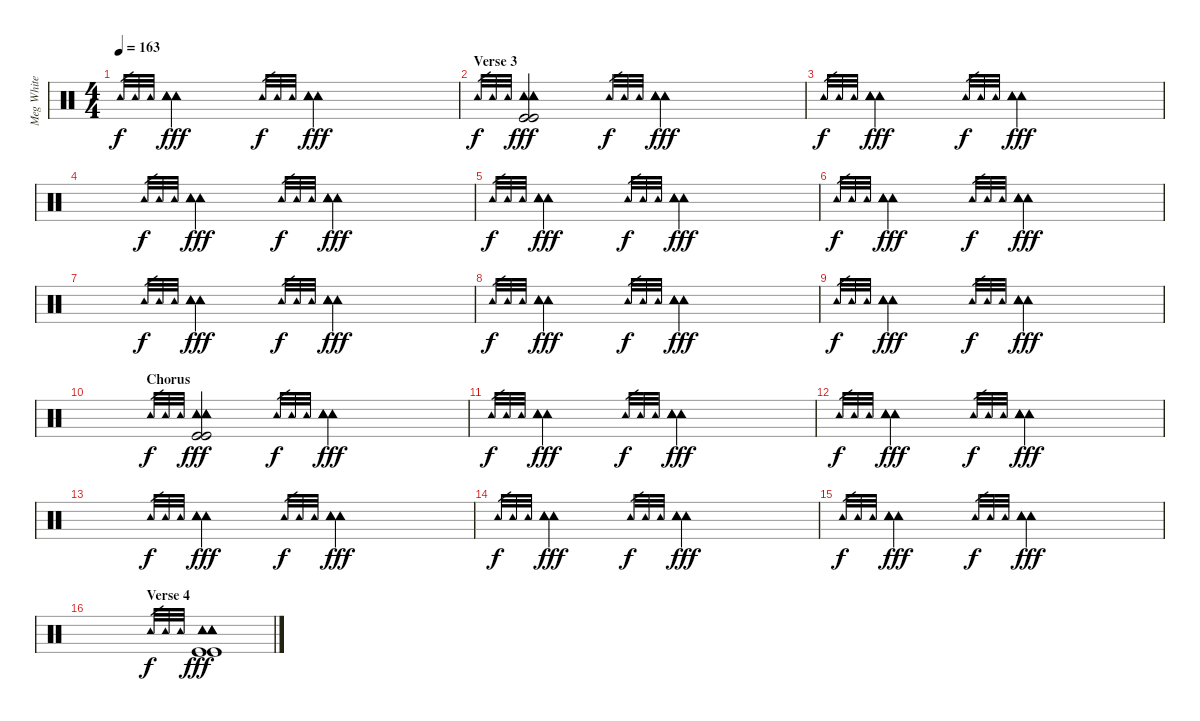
\track ("Meg White" "Meg White") {instrument percussion}
\staff {score}
\articulation defaults
\ts (4 4)
\tempo 163
\clef neutral
\ks c "Tambourine (hit)".32{gr dy f} "Tambourine (hit)".32{gr} "Tambourine (hit)".32{gr}
("Tambourine (hit)" "Tambourine (hit)" "Tambourine (hit)").2{dy fff} "Tambourine (hit)".32{gr dy f} "Tambourine (hit)".32{gr} "Tambourine (hit)".32{gr} ("Tambourine (hit)" "Tambourine (hit)" "Tambourine (hit)").2{dy fff} |
\section ("" "Verse 3")
"Tambourine (hit)".32{gr dy f} "Tambourine (hit)".32{gr} "Tambourine (hit)".32{gr} ("Tambourine (hit)" "Tambourine (hit)" "Tambourine (hit)" "Kick (hit)" "Kick (hit)").2{dy fff} "Tambourine (hit)".32{gr dy f} "Tambourine (hit)".32{gr} "Tambourine (hit)".32{gr} ("Tambourine (hit)" "Tambourine (hit)" "Tambourine (hit)").2{dy fff} |
"Tambourine (hit)".32{gr dy f} "Tambourine (hit)".32{gr} "Tambourine (hit)".32{gr} ("Tambourine (hit)" "Tambourine (hit)" "Tambourine (hit)").2{dy fff} "Tambourine (hit)".32{gr dy f} "Tambourine (hit)".32{gr} "Tambourine (hit)".32{gr} ("Tambourine (hit)" "Tambourine (hit)" "Tambourine (hit)").2{dy fff} |
"Tambourine (hit)".32{gr dy f} "Tambourine (hit)".32{gr} "Tambourine (hit)".32{gr} ("Tambourine (hit)" "Tambourine (hit)" "Tambourine (hit)").2{dy fff} "Tambourine (hit)".32{gr dy f} "Tambourine (hit)".32{gr} "Tambourine (hit)".32{gr} ("Tambourine (hit)" "Tambourine (hit)" "Tambourine (hit)").2{dy fff} |
"Tambourine (hit)".32{gr dy f} "Tambourine (hit)".32{gr} "Tambourine (hit)".32{gr} ("Tambourine (hit)" "Tambourine (hit)" "Tambourine (hit)").2{dy fff} "Tambourine (hit)".32{gr dy f} "Tambourine (hit)".32{gr} "Tambourine (hit)".32{gr} ("Tambourine (hit)" "Tambourine (hit)" "Tambourine (hit)").2{dy fff} |
"Tambourine (hit)".32{gr dy f} "Tambourine (hit)".32{gr} "Tambourine (hit)".32{gr} ("Tambourine (hit)" "Tambourine (hit)" "Tambourine (hit)").2{dy fff} "Tambourine (hit)".32{gr dy f} "Tambourine (hit)".32{gr} "Tambourine (hit)".32{gr} ("Tambourine (hit)" "Tambourine (hit)" "Tambourine (hit)").2{dy fff} |
"Tambourine (hit)".32{gr dy f} "Tambourine (hit)".32{gr} "Tambourine (hit)".32{gr} ("Tambourine (hit)" "Tambourine (hit)" "Tambourine (hit)").2{dy fff} "Tambourine (hit)".32{gr dy f} "Tambourine (hit)".32{gr} "Tambourine (hit)".32{gr} ("Tambourine (hit)" "Tambourine (hit)" "Tambourine (hit)").2{dy fff} |
"Tambourine (hit)".32{gr dy f} "Tambourine (hit)".32{gr} "Tambourine (hit)".32{gr} ("Tambourine (hit)" "Tambourine (hit)" "Tambourine (hit)").2{dy fff} "Tambourine (hit)".32{gr dy f} "Tambourine (hit)".32{gr} "Tambourine (hit)".32{gr} ("Tambourine (hit)" "Tambourine (hit)" "Tambourine (hit)").2{dy fff} |
"Tambourine (hit)".32{gr dy f} "Tambourine (hit)".32{gr} "Tambourine (hit)".32{gr} ("Tambourine (hit)" "Tambourine (hit)" "Tambourine (hit)").2{dy fff} "Tambourine (hit)".32{gr dy f} "Tambourine (hit)".32{gr} "Tambourine (hit)".32{gr} ("Tambourine (hit)" "Tambourine (hit)" "Tambourine (hit)").2{dy fff} |
\section ("" "Chorus")
"Tambourine (hit)".32{gr dy f} "Tambourine (hit)".32{gr} "Tambourine (hit)".32{gr} ("Tambourine (hit)" "Tambourine (hit)" "Tambourine (hit)" "Kick (hit)" "Kick (hit)").2{dy fff} "Tambourine (hit)".32{gr dy f} "Tambourine (hit)".32{gr} "Tambourine (hit)".32{gr} ("Tambourine (hit)" "Tambourine (hit)" "Tambourine (hit)").2{dy fff} |
"Tambourine (hit)".32{gr dy f} "Tambourine (hit)".32{gr} "Tambourine (hit)".32{gr} ("Tambourine (hit)" "Tambourine (hit)" "Tambourine (hit)").2{dy fff} "Tambourine (hit)".32{gr dy f} "Tambourine (hit)".32{gr} "Tambourine (hit)".32{gr} ("Tambourine (hit)" "Tambourine (hit)" "Tambourine (hit)").2{dy fff} |
"Tambourine (hit)".32{gr dy f} "Tambourine (hit)".32{gr} "Tambourine (hit)".32{gr} ("Tambourine (hit)" "Tambourine (hit)" "Tambourine (hit)").2{dy fff} "Tambourine (hit)".32{gr dy f} "Tambourine (hit)".32{gr} "Tambourine (hit)".32{gr} ("Tambourine (hit)" "Tambourine (hit)" "Tambourine (hit)").2{dy fff} |
"Tambourine (hit)".32{gr dy f} "Tambourine (hit)".32{gr} "Tambourine (hit)".32{gr} ("Tambourine (hit)" "Tambourine (hit)" "Tambourine (hit)").2{dy fff} "Tambourine (hit)".32{gr dy f} "Tambourine (hit)".32{gr} "Tambourine (hit)".32{gr} ("Tambourine (hit)" "Tambourine (hit)" "Tambourine (hit)").2{dy fff} |
"Tambourine (hit)".32{gr dy f} "Tambourine (hit)".32{gr} "Tambourine (hit)".32{gr} ("Tambourine (hit)" "Tambourine (hit)" "Tambourine (hit)").2{dy fff} "Tambourine (hit)".32{gr dy f} "Tambourine (hit)".32{gr} "Tambourine (hit)".32{gr} ("Tambourine (hit)" "Tambourine (hit)" "Tambourine (hit)").2{dy fff} |
"Tambourine (hit)".32{gr dy f} "Tambourine (hit)".32{gr} "Tambourine (hit)".32{gr} ("Tambourine (hit)" "Tambourine (hit)" "Tambourine (hit)").2{dy fff} "Tambourine (hit)".32{gr dy f} "Tambourine (hit)".32{gr} "Tambourine (hit)".32{gr} ("Tambourine (hit)" "Tambourine (hit)" "Tambourine (hit)").2{dy fff} |
\section ("" "Verse 4")
"Tambourine (hit)".32{gr dy f} "Tambourine (hit)".32{gr} "Tambourine (hit)".32{gr} ("Tambourine (hit)" "Tambourine (hit)" "Tambourine (hit)" "Kick (hit)" "Kick (hit)").1{dy fff}
